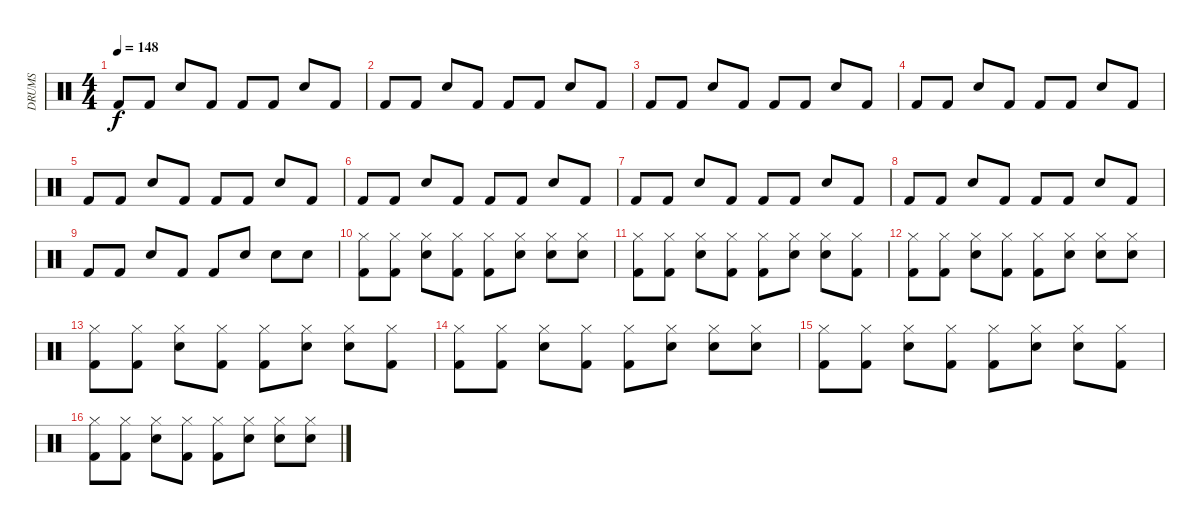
\track ("DRUMS" "DRUMS") {instrument percussion}
\staff {score}
\articulation defaults
\ts (4 4)
\tempo 148
\clef neutral
\ks c "Kick (hit) 2".8{dy f} "Kick (hit) 2".8 "Snare (hit) 2".8 "Kick (hit) 2".8 "Kick (hit) 2".8 "Kick (hit) 2".8 "Snare (hit) 2".8 "Kick (hit) 2".8
|
"Kick (hit) 2".8 "Kick (hit) 2".8 "Snare (hit) 2".8 "Kick (hit) 2".8 "Kick (hit) 2".8 "Kick (hit) 2".8 "Snare (hit) 2".8 "Kick (hit) 2".8 |
"Kick (hit) 2".8 "Kick (hit) 2".8 "Snare (hit) 2".8 "Kick (hit) 2".8 "Kick (hit) 2".8 "Kick (hit) 2".8 "Snare (hit) 2".8 "Kick (hit) 2".8 |
"Kick (hit) 2".8 "Kick (hit) 2".8 "Snare (hit) 2".8 "Kick (hit) 2".8 "Kick (hit) 2".8 "Kick (hit) 2".8 "Snare (hit) 2".8 "Kick (hit) 2".8 |
"Kick (hit) 2".8 "Kick (hit) 2".8 "Snare (hit) 2".8 "Kick (hit) 2".8 "Kick (hit) 2".8 "Kick (hit) 2".8 "Snare (hit) 2".8 "Kick (hit) 2".8 |
"Kick (hit) 2".8 "Kick (hit) 2".8 "Snare (hit) 2".8 "Kick (hit) 2".8 "Kick (hit) 2".8 "Kick (hit) 2".8 "Snare (hit) 2".8 "Kick (hit) 2".8 |
"Kick (hit) 2".8 "Kick (hit) 2".8 "Snare (hit) 2".8 "Kick (hit) 2".8 "Kick (hit) 2".8 "Kick (hit) 2".8 "Snare (hit) 2".8 "Kick (hit) 2".8 |
"Kick (hit) 2".8 "Kick (hit) 2".8 "Snare (hit) 2".8 "Kick (hit) 2".8 "Kick (hit) 2".8 "Kick (hit) 2".8 "Snare (hit) 2".8 "Kick (hit) 2".8 |
"Kick (hit) 2".8 "Kick (hit) 2".8 "Snare (hit) 2".8 "Kick (hit) 2".8 "Kick (hit) 2".8 "Snare (hit) 2".8 "Snare (hit) 2".8 "Snare (hit) 2".8 |
("Hi-Hat (closed)" "Kick (hit) 2").8 ("Hi-Hat (closed)" "Kick (hit) 2").8 ("Hi-Hat (closed)" "Snare (hit) 2").8 ("Hi-Hat (closed)" "Kick (hit) 2").8 ("Hi-Hat (closed)" "Kick (hit) 2").8 ("Hi-Hat (closed)" "Snare (hit) 2").8 ("Hi-Hat (closed)" "Snare (hit) 2").8 ("Hi-Hat (closed)" "Snare (hit) 2").8 |
("Hi-Hat (closed)" "Kick (hit) 2").8 ("Hi-Hat (closed)" "Kick (hit) 2").8 ("Hi-Hat (closed)" "Snare (hit) 2").8 ("Hi-Hat (closed)" "Kick (hit) 2").8 ("Hi-Hat (closed)" "Kick (hit) 2").8 ("Hi-Hat (closed)" "Snare (hit) 2").8 ("Hi-Hat (closed)" "Snare (hit) 2").8 ("Hi-Hat (closed)" "Kick (hit) 2").8 |
("Hi-Hat (closed)" "Kick (hit) 2").8 ("Hi-Hat (closed)" "Kick (hit) 2").8 ("Hi-Hat (closed)" "Snare (hit) 2").8 ("Hi-Hat (closed)" "Kick (hit) 2").8 ("Hi-Hat (closed)" "Kick (hit) 2").8 ("Hi-Hat (closed)" "Snare (hit) 2").8 ("Hi-Hat (closed)" "Snare (hit) 2").8 ("Hi-Hat (closed)" "Snare (hit) 2").8 |
("Hi-Hat (closed)" "Kick (hit) 2").8 ("Hi-Hat (closed)" "Kick (hit) 2").8 ("Hi-Hat (closed)" "Snare (hit) 2").8 ("Hi-Hat (closed)" "Kick (hit) 2").8 ("Hi-Hat (closed)" "Kick (hit) 2").8 ("Hi-Hat (closed)" "Snare (hit) 2").8 ("Hi-Hat (closed)" "Snare (hit) 2").8 ("Hi-Hat (closed)" "Kick (hit) 2").8 |
("Hi-Hat (closed)" "Kick (hit) 2").8 ("Hi-Hat (closed)" "Kick (hit) 2").8 ("Hi-Hat (closed)" "Snare (hit) 2").8 ("Hi-Hat (closed)" "Kick (hit) 2").8 ("Hi-Hat (closed)" "Kick (hit) 2").8 ("Hi-Hat (closed)" "Snare (hit) 2").8 ("Hi-Hat (closed)" "Snare (hit) 2").8 ("Hi-Hat (closed)" "Snare (hit) 2").8 |
("Hi-Hat (closed)" "Kick (hit) 2").8 ("Hi-Hat (closed)" "Kick (hit) 2").8 ("Hi-Hat (closed)" "Snare (hit) 2").8 ("Hi-Hat (closed)" "Kick (hit) 2").8 ("Hi-Hat (closed)" "Kick (hit) 2").8 ("Hi-Hat (closed)" "Snare (hit) 2").8 ("Hi-Hat (closed)" "Snare (hit) 2").8 ("Hi-Hat (closed)" "Kick (hit) 2").8 |
("Hi-Hat (closed)" "Kick (hit) 2").8 ("Hi-Hat (closed)" "Kick (hit) 2").8 ("Hi-Hat (closed)" "Snare (hit) 2").8 ("Hi-Hat (closed)" "Kick (hit) 2").8 ("Hi-Hat (closed)" "Kick (hit) 2").8 ("Hi-Hat (closed)" "Snare (hit) 2").8 ("Hi-Hat (closed)" "Snare (hit) 2").8 ("Hi-Hat (closed)" "Snare (hit) 2").8
